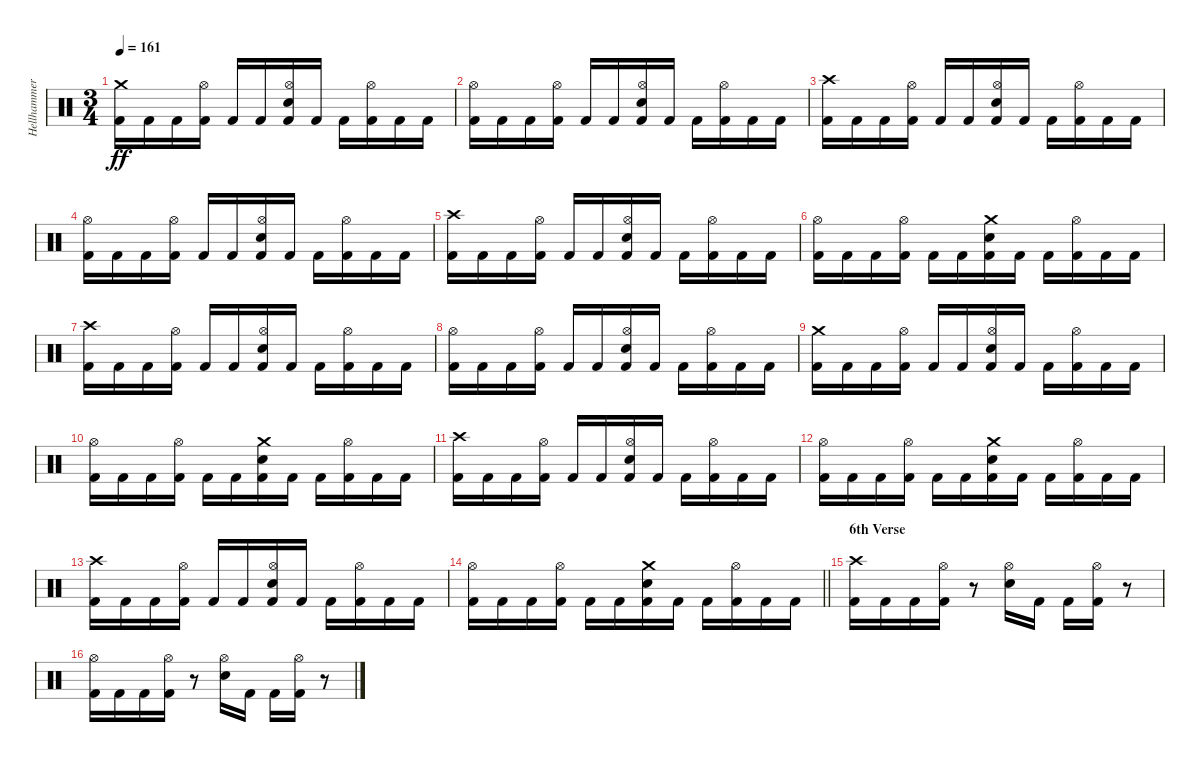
\track ("Hellhammer" "Hellhammer") {instrument percussion}
\staff {score}
\articulation defaults
\ts (3 4)
\tempo 161
\clef neutral
\ks c
("Crash medium (hit)" "Kick (hit) 2").16{dy ff} "Kick (hit) 2".16 "Kick (hit) 2".16 ("Hi-Hat (open)" "Kick (hit) 2").16 "Kick (hit) 2".16 "Kick (hit) 2".16 ("Hi-Hat (open)" "Snare (hit) 2" "Kick (hit) 2").16 "Kick (hit) 2".16 "Kick (hit) 2".16 ("Hi-Hat (open)" "Kick (hit) 2").16 "Kick (hit) 2".16 "Kick (hit) 2".16 |
("Hi-Hat (open)" "Kick (hit) 2").16 "Kick (hit) 2".16 "Kick (hit) 2".16 ("Hi-Hat (open)" "Kick (hit) 2").16 "Kick (hit) 2".16 "Kick (hit) 2".16 ("Hi-Hat (open)" "Snare (hit) 2" "Kick (hit) 2").16 "Kick (hit) 2".16 "Kick (hit) 2".16 ("Hi-Hat (open)" "Kick (hit) 2").16 "Kick (hit) 2".16 "Kick (hit) 2".16 |
("Crash high (hit)" "Kick (hit) 2").16 "Kick (hit) 2".16 "Kick (hit) 2".16 ("Hi-Hat (open)" "Kick (hit) 2").16 "Kick (hit) 2".16 "Kick (hit) 2".16 ("Hi-Hat (open)" "Snare (hit) 2" "Kick (hit) 2").16 "Kick (hit) 2".16 "Kick (hit) 2".16 ("Hi-Hat (open)" "Kick (hit) 2").16 "Kick (hit) 2".16 "Kick (hit) 2".16 |
("Hi-Hat (open)" "Kick (hit) 2").16 "Kick (hit) 2".16 "Kick (hit) 2".16 ("Hi-Hat (open)" "Kick (hit) 2").16 "Kick (hit) 2".16 "Kick (hit) 2".16 ("Hi-Hat (open)" "Snare (hit) 2" "Kick (hit) 2").16 "Kick (hit) 2".16 "Kick (hit) 2".16 ("Hi-Hat (open)" "Kick (hit) 2").16 "Kick (hit) 2".16 "Kick (hit) 2".16 |
("Crash high (hit)" "Kick (hit) 2").16 "Kick (hit) 2".16 "Kick (hit) 2".16 ("Hi-Hat (open)" "Kick (hit) 2").16 "Kick (hit) 2".16 "Kick (hit) 2".16 ("Hi-Hat (open)" "Snare (hit) 2" "Kick (hit) 2").16 "Kick (hit) 2".16 "Kick (hit) 2".16 ("Hi-Hat (open)" "Kick (hit) 2").16 "Kick (hit) 2".16 "Kick (hit) 2".16 |
("Hi-Hat (open)" "Kick (hit) 2").16 "Kick (hit) 2".16 "Kick (hit) 2".16 ("Hi-Hat (open)" "Kick (hit) 2").16 "Kick (hit) 2".16 "Kick (hit) 2".16 ("Crash medium (hit)" "Snare (hit) 2" "Kick (hit) 2").16 "Kick (hit) 2".16 "Kick (hit) 2".16 ("Hi-Hat (open)" "Kick (hit) 2").16 "Kick (hit) 2".16 "Kick (hit) 2".16 |
("Crash high (hit)" "Kick (hit) 2").16 "Kick (hit) 2".16 "Kick (hit) 2".16 ("Hi-Hat (open)" "Kick (hit) 2").16 "Kick (hit) 2".16 "Kick (hit) 2".16 ("Hi-Hat (open)" "Snare (hit) 2" "Kick (hit) 2").16 "Kick (hit) 2".16 "Kick (hit) 2".16 ("Hi-Hat (open)" "Kick (hit) 2").16 "Kick (hit) 2".16 "Kick (hit) 2".16 |
("Hi-Hat (open)" "Kick (hit) 2").16 "Kick (hit) 2".16 "Kick (hit) 2".16 ("Hi-Hat (open)" "Kick (hit) 2").16 "Kick (hit) 2".16 "Kick (hit) 2".16 ("Hi-Hat (open)" "Snare (hit) 2" "Kick (hit) 2").16 "Kick (hit) 2".16 "Kick (hit) 2".16 ("Hi-Hat (open)" "Kick (hit) 2").16 "Kick (hit) 2".16 "Kick (hit) 2".16 |
("Crash medium (hit)" "Kick (hit) 2").16 "Kick (hit) 2".16 "Kick (hit) 2".16 ("Hi-Hat (open)" "Kick (hit) 2").16 "Kick (hit) 2".16 "Kick (hit) 2".16 ("Hi-Hat (open)" "Snare (hit) 2" "Kick (hit) 2").16 "Kick (hit) 2".16 "Kick (hit) 2".16 ("Hi-Hat (open)" "Kick (hit) 2").16 "Kick (hit) 2".16 "Kick (hit) 2".16 |
("Hi-Hat (open)" "Kick (hit) 2").16 "Kick (hit) 2".16 "Kick (hit) 2".16 ("Hi-Hat (open)" "Kick (hit) 2").16 "Kick (hit) 2".16 "Kick (hit) 2".16 ("Crash medium (hit)" "Snare (hit) 2" "Kick (hit) 2").16 "Kick (hit) 2".16 "Kick (hit) 2".16 ("Hi-Hat (open)" "Kick (hit) 2").16 "Kick (hit) 2".16 "Kick (hit) 2".16 |
("Crash high (hit)" "Kick (hit) 2").16 "Kick (hit) 2".16 "Kick (hit) 2".16 ("Hi-Hat (open)" "Kick (hit) 2").16 "Kick (hit) 2".16 "Kick (hit) 2".16 ("Hi-Hat (open)" "Snare (hit) 2" "Kick (hit) 2").16 "Kick (hit) 2".16 "Kick (hit) 2".16 ("Hi-Hat (open)" "Kick (hit) 2").16 "Kick (hit) 2".16 "Kick (hit) 2".16 |
("Hi-Hat (open)" "Kick (hit) 2").16 "Kick (hit) 2".16 "Kick (hit) 2".16 ("Hi-Hat (open)" "Kick (hit) 2").16 "Kick (hit) 2".16 "Kick (hit) 2".16 ("Crash medium (hit)" "Snare (hit) 2" "Kick (hit) 2").16 "Kick (hit) 2".16 "Kick (hit) 2".16 ("Hi-Hat (open)" "Kick (hit) 2").16 "Kick (hit) 2".16 "Kick (hit) 2".16 |
("Crash high (hit)" "Kick (hit) 2").16 "Kick (hit) 2".16 "Kick (hit) 2".16 ("Hi-Hat (open)" "Kick (hit) 2").16 "Kick (hit) 2".16 "Kick (hit) 2".16 ("Hi-Hat (open)" "Snare (hit) 2" "Kick (hit) 2").16 "Kick (hit) 2".16 "Kick (hit) 2".16 ("Hi-Hat (open)" "Kick (hit) 2").16 "Kick (hit) 2".16 "Kick (hit) 2".16 |
\barLineRight lightlight
("Hi-Hat (open)" "Kick (hit) 2").16 "Kick (hit) 2".16 "Kick (hit) 2".16 ("Hi-Hat (open)" "Kick (hit) 2").16 "Kick (hit) 2".16 "Kick (hit) 2".16 ("Crash medium (hit)" "Snare (hit) 2" "Kick (hit) 2").16 "Kick (hit) 2".16 "Kick (hit) 2".16 ("Hi-Hat (open)" "Kick (hit) 2").16 "Kick (hit) 2".16 "Kick (hit) 2".16 |
\section ("" "6th Verse")
("Crash high (hit)" "Kick (hit) 2").16 "Kick (hit) 2".16 "Kick (hit) 2".16 ("Hi-Hat (open)" "Kick (hit) 2").16 r.8 ("Hi-Hat (open)" "Snare (hit) 2").16 "Kick (hit) 2".16 "Kick (hit) 2".16 ("Hi-Hat (open)" "Kick (hit) 2").16 r.8 |
("Hi-Hat (open)" "Kick (hit) 2").16 "Kick (hit) 2".16 "Kick (hit) 2".16 ("Hi-Hat (open)" "Kick (hit) 2").16 r.8 ("Hi-Hat (open)" "Snare (hit) 2").16 "Kick (hit) 2".16 "Kick (hit) 2".16 ("Hi-Hat (open)" "Kick (hit) 2").16 r.8
